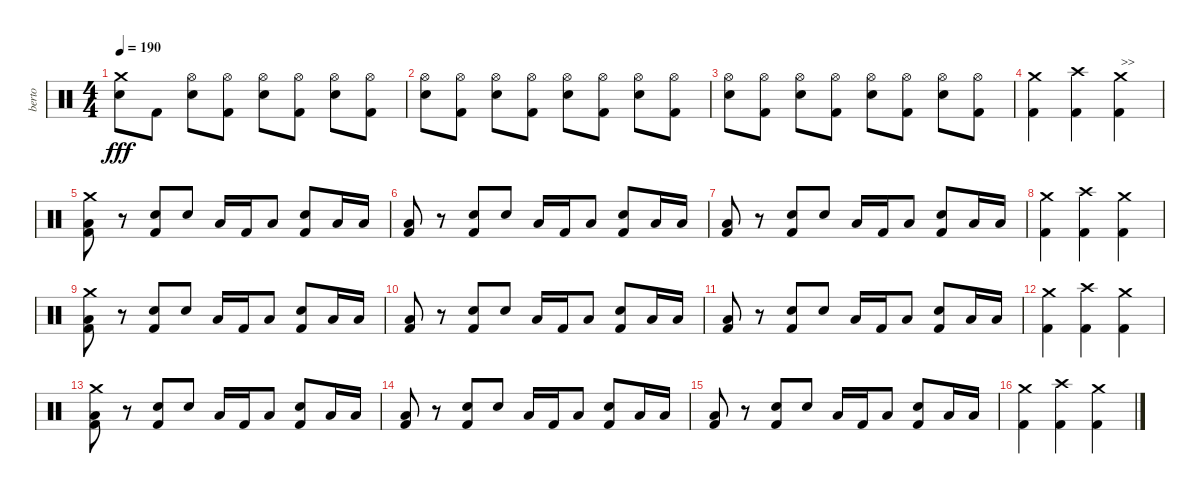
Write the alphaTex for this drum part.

\track ("berto" "berto") {instrument percussion}
\staff {score}
\articulation defaults
\ts (4 4)
\tempo 190
\clef neutral
\ks c
("Crash medium (hit)" "Snare (hit) 2").8{dy fff} "Kick (hit) 2".8 ("Hi-Hat (open)" "Snare (hit) 2").8 ("Hi-Hat (open)" "Kick (hit) 2").8 ("Hi-Hat (open)" "Snare (hit) 2").8 ("Hi-Hat (open)" "Kick (hit) 2").8 ("Hi-Hat (open)" "Snare (hit) 2").8 ("Hi-Hat (open)" "Kick (hit) 2").8 |
("Hi-Hat (open)" "Snare (hit) 2").8 ("Hi-Hat (open)" "Kick (hit) 2").8 ("Hi-Hat (open)" "Snare (hit) 2").8 ("Hi-Hat (open)" "Kick (hit) 2").8 ("Hi-Hat (open)" "Snare (hit) 2").8 ("Hi-Hat (open)" "Kick (hit) 2").8 ("Hi-Hat (open)" "Snare (hit) 2").8 ("Hi-Hat (open)" "Kick (hit) 2").8 |
("Hi-Hat (open)" "Snare (hit) 2").8 ("Hi-Hat (open)" "Kick (hit) 2").8 ("Hi-Hat (open)" "Snare (hit) 2").8 ("Hi-Hat (open)" "Kick (hit) 2").8 ("Hi-Hat (open)" "Snare (hit) 2").8 ("Hi-Hat (open)" "Kick (hit) 2").8 ("Hi-Hat (open)" "Snare (hit) 2").8 ("Hi-Hat (open)" "Kick (hit) 2").8 |
("Crash medium (hit)" "Kick (hit) 2").4 ("Crash high (hit)" "Kick (hit) 2").4 ("Crash medium (hit)" "Kick (hit) 2").4{txt ">>"} |
("Crash medium (hit)" "Low Tom (hit)" "Kick (hit) 2").8 r.8 ("Snare (hit) 2" "Kick (hit) 2").8 "Snare (hit) 2".8 "Low Tom (hit)".16 "Kick (hit) 2".16 "Low Tom (hit)".8 ("Snare (hit) 2" "Kick (hit) 2").8 "Low Tom (hit)".16 "Low Tom (hit)".16 |
("Low Tom (hit)" "Kick (hit) 2").8 r.8 ("Snare (hit) 2" "Kick (hit) 2").8 "Snare (hit) 2".8 "Low Tom (hit)".16 "Kick (hit) 2".16 "Low Tom (hit)".8 ("Snare (hit) 2" "Kick (hit) 2").8 "Low Tom (hit)".16 "Low Tom (hit)".16 |
("Low Tom (hit)" "Kick (hit) 2").8 r.8 ("Snare (hit) 2" "Kick (hit) 2").8 "Snare (hit) 2".8 "Low Tom (hit)".16 "Kick (hit) 2".16 "Low Tom (hit)".8 ("Snare (hit) 2" "Kick (hit) 2").8 "Low Tom (hit)".16 "Low Tom (hit)".16 |
("Crash medium (hit)" "Kick (hit) 2").4 ("Crash high (hit)" "Kick (hit) 2").4 ("Crash medium (hit)" "Kick (hit) 2").4 |
("Crash medium (hit)" "Low Tom (hit)" "Kick (hit) 2").8 r.8 ("Snare (hit) 2" "Kick (hit) 2").8 "Snare (hit) 2".8 "Low Tom (hit)".16 "Kick (hit) 2".16 "Low Tom (hit)".8 ("Snare (hit) 2" "Kick (hit) 2").8 "Low Tom (hit)".16 "Low Tom (hit)".16 |
("Low Tom (hit)" "Kick (hit) 2").8 r.8 ("Snare (hit) 2" "Kick (hit) 2").8 "Snare (hit) 2".8 "Low Tom (hit)".16 "Kick (hit) 2".16 "Low Tom (hit)".8 ("Snare (hit) 2" "Kick (hit) 2").8 "Low Tom (hit)".16 "Low Tom (hit)".16 |
("Low Tom (hit)" "Kick (hit) 2").8 r.8 ("Snare (hit) 2" "Kick (hit) 2").8 "Snare (hit) 2".8 "Low Tom (hit)".16 "Kick (hit) 2".16 "Low Tom (hit)".8 ("Snare (hit) 2" "Kick (hit) 2").8 "Low Tom (hit)".16 "Low Tom (hit)".16 |
("Crash medium (hit)" "Kick (hit) 2").4 ("Crash high (hit)" "Kick (hit) 2").4 ("Crash medium (hit)" "Kick (hit) 2").4 |
("Crash medium (hit)" "Low Tom (hit)" "Kick (hit) 2").8 r.8 ("Snare (hit) 2" "Kick (hit) 2").8 "Snare (hit) 2".8 "Low Tom (hit)".16 "Kick (hit) 2".16 "Low Tom (hit)".8 ("Snare (hit) 2" "Kick (hit) 2").8 "Low Tom (hit)".16 "Low Tom (hit)".16 |
("Low Tom (hit)" "Kick (hit) 2").8 r.8 ("Snare (hit) 2" "Kick (hit) 2").8 "Snare (hit) 2".8 "Low Tom (hit)".16 "Kick (hit) 2".16 "Low Tom (hit)".8 ("Snare (hit) 2" "Kick (hit) 2").8 "Low Tom (hit)".16 "Low Tom (hit)".16 |
("Low Tom (hit)" "Kick (hit) 2").8 r.8 ("Snare (hit) 2" "Kick (hit) 2").8 "Snare (hit) 2".8 "Low Tom (hit)".16 "Kick (hit) 2".16 "Low Tom (hit)".8 ("Snare (hit) 2" "Kick (hit) 2").8 "Low Tom (hit)".16 "Low Tom (hit)".16 |
("Crash medium (hit)" "Kick (hit) 2").4 ("Crash high (hit)" "Kick (hit) 2").4 ("Crash medium (hit)" "Kick (hit) 2").4
